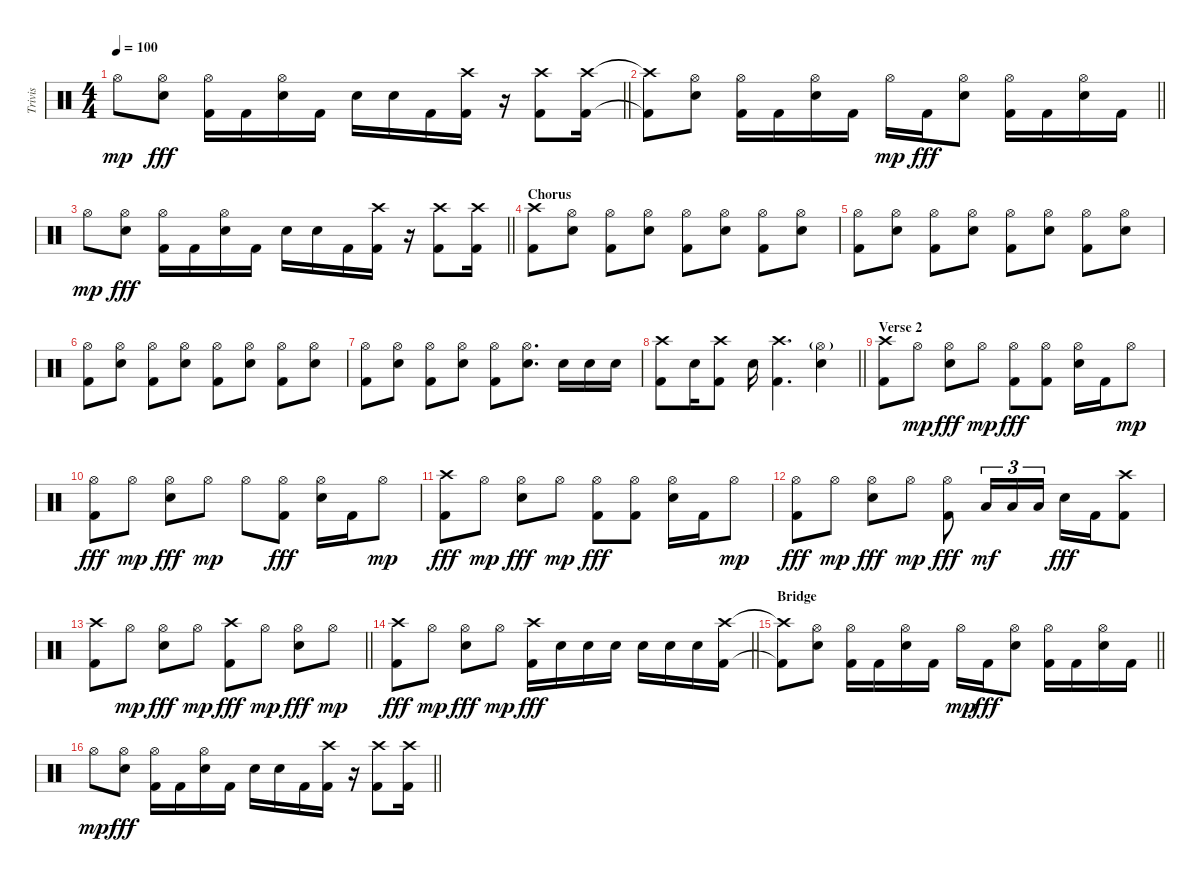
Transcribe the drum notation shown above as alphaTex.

\track ("Trivis" "Trivis") {instrument percussion}
\staff {score}
\articulation defaults
\ts (4 4)
\tempo 100
\clef neutral
\barLineRight lightlight
\ks c "Hi-Hat (open)".8{dy mp}
("Hi-Hat (open)" "Snare (hit) 2").8{dy fff} ("Hi-Hat (open)" "Kick (hit) 2").16 "Kick (hit) 2".16 ("Hi-Hat (open)" "Snare (hit) 2").16 "Kick (hit) 2".16 "Snare (hit) 2".16 "Snare (hit) 2".16 "Kick (hit) 2".16 ("Crash high (hit)" "Kick (hit) 2").16 r.16 ("Crash high (hit)" "Kick (hit) 2").8 ("Crash high (hit)" "Kick (hit) 2").16 |
\barLineRight lightlight
("Crash high (hit)"{t} "Kick (hit) 2"{t}).8 ("Hi-Hat (open)" "Snare (hit) 2").8 ("Hi-Hat (open)" "Kick (hit) 2").16 "Kick (hit) 2".16 ("Hi-Hat (open)" "Snare (hit) 2").16 "Kick (hit) 2".16 "Hi-Hat (open)".16{dy mp} "Kick (hit) 2".16{dy fff} ("Hi-Hat (open)" "Snare (hit) 2").8 ("Hi-Hat (open)" "Kick (hit) 2").16 "Kick (hit) 2".16 ("Hi-Hat (open)" "Snare (hit) 2").16 "Kick (hit) 2".16 |
\barLineRight lightlight "Hi-Hat (open)".8{dy mp}
("Hi-Hat (open)" "Snare (hit) 2").8{dy fff} ("Hi-Hat (open)" "Kick (hit) 2").16 "Kick (hit) 2".16 ("Hi-Hat (open)" "Snare (hit) 2").16 "Kick (hit) 2".16 "Snare (hit) 2".16 "Snare (hit) 2".16 "Kick (hit) 2".16 ("Crash high (hit)" "Kick (hit) 2").16 r.16 ("Crash high (hit)" "Kick (hit) 2").8 ("Crash high (hit)" "Kick (hit) 2").16 |
\section ("" "Chorus")
("Crash high (hit)" "Kick (hit) 2").8 ("Hi-Hat (open)" "Snare (hit) 2").8 ("Hi-Hat (open)" "Kick (hit) 2").8 ("Hi-Hat (open)" "Snare (hit) 2").8 ("Hi-Hat (open)" "Kick (hit) 2").8 ("Hi-Hat (open)" "Snare (hit) 2").8 ("Hi-Hat (open)" "Kick (hit) 2").8 ("Hi-Hat (open)" "Snare (hit) 2").8 |
("Hi-Hat (open)" "Kick (hit) 2").8 ("Hi-Hat (open)" "Snare (hit) 2").8 ("Hi-Hat (open)" "Kick (hit) 2").8 ("Hi-Hat (open)" "Snare (hit) 2").8 ("Hi-Hat (open)" "Kick (hit) 2").8 ("Hi-Hat (open)" "Snare (hit) 2").8 ("Hi-Hat (open)" "Kick (hit) 2").8 ("Hi-Hat (open)" "Snare (hit) 2").8 |
("Hi-Hat (open)" "Kick (hit) 2").8 ("Hi-Hat (open)" "Snare (hit) 2").8 ("Hi-Hat (open)" "Kick (hit) 2").8 ("Hi-Hat (open)" "Snare (hit) 2").8 ("Hi-Hat (open)" "Kick (hit) 2").8 ("Hi-Hat (open)" "Snare (hit) 2").8 ("Hi-Hat (open)" "Kick (hit) 2").8 ("Hi-Hat (open)" "Snare (hit) 2").8 |
("Hi-Hat (open)" "Kick (hit) 2").8 ("Hi-Hat (open)" "Snare (hit) 2").8 ("Hi-Hat (open)" "Kick (hit) 2").8 ("Hi-Hat (open)" "Snare (hit) 2").8 ("Hi-Hat (open)" "Kick (hit) 2").8 ("Hi-Hat (open)" "Snare (hit) 2").8{d} "Snare (hit) 2".16 "Snare (hit) 2".16 "Snare (hit) 2".16 |
\barLineRight lightlight
("Crash high (hit)" "Kick (hit) 2").8 "Snare (hit) 2".16 ("Crash high (hit)" "Kick (hit) 2").8 "Snare (hit) 2".16 ("Crash high (hit)" "Kick (hit) 2").4{d} ("Hi-Hat (open)"{g} "Snare (hit) 2").4 |
\section ("" "Verse 2")
("Crash high (hit)" "Kick (hit) 2").8 "Hi-Hat (open)".8{dy mp} ("Hi-Hat (open)" "Snare (hit) 2").8{dy fff} "Hi-Hat (open)".8{dy mp} ("Hi-Hat (open)" "Kick (hit) 2").8{dy fff} ("Hi-Hat (open)" "Kick (hit) 2").8 ("Hi-Hat (open)" "Snare (hit) 2").16 "Kick (hit) 2".16 "Hi-Hat (open)".8{dy mp} |
("Hi-Hat (open)" "Kick (hit) 2").8{dy fff} "Hi-Hat (open)".8{dy mp} ("Hi-Hat (open)" "Snare (hit) 2").8{dy fff} "Hi-Hat (open)".8{dy mp} "Hi-Hat (open)".8 ("Hi-Hat (open)" "Kick (hit) 2").8{dy fff} ("Hi-Hat (open)" "Snare (hit) 2").16 "Kick (hit) 2".16 "Hi-Hat (open)".8{dy mp} |
("Crash high (hit)" "Kick (hit) 2").8{dy fff} "Hi-Hat (open)".8{dy mp} ("Hi-Hat (open)" "Snare (hit) 2").8{dy fff} "Hi-Hat (open)".8{dy mp} ("Hi-Hat (open)" "Kick (hit) 2").8{dy fff} ("Hi-Hat (open)" "Kick (hit) 2").8 ("Hi-Hat (open)" "Snare (hit) 2").16 "Kick (hit) 2".16 "Hi-Hat (open)".8{dy mp} |
("Hi-Hat (open)" "Kick (hit) 2").8{dy fff} "Hi-Hat (open)".8{dy mp} ("Hi-Hat (open)" "Snare (hit) 2").8{dy fff} "Hi-Hat (open)".8{dy mp} ("Hi-Hat (open)" "Kick (hit) 2").8{dy fff} "Low Tom (hit)".16{tu (3 2) dy mf} "Low Tom (hit)".16{tu (3 2)} "Low Tom (hit)".16{tu (3 2)} "Snare (hit) 2".16{dy fff} "Kick (hit) 2".16 ("Crash high (hit)" "Kick (hit) 2").8 |
\barLineRight lightlight
("Crash high (hit)" "Kick (hit) 2").8 "Hi-Hat (open)".8{dy mp} ("Hi-Hat (open)" "Snare (hit) 2").8{dy fff} "Hi-Hat (open)".8{dy mp} ("Crash high (hit)" "Kick (hit) 2").8{dy fff} "Hi-Hat (open)".8{dy mp} ("Hi-Hat (open)" "Snare (hit) 2").8{dy fff} "Hi-Hat (open)".8{dy mp} |
\barLineRight lightlight
("Crash high (hit)" "Kick (hit) 2").8{dy fff} "Hi-Hat (open)".8{dy mp} ("Hi-Hat (open)" "Snare (hit) 2").8{dy fff} "Hi-Hat (open)".8{dy mp} ("Crash high (hit)" "Kick (hit) 2").16{dy fff} "Snare (hit) 2".16 "Snare (hit) 2".16 "Snare (hit) 2".16 "Snare (hit) 2".16 "Snare (hit) 2".16 "Snare (hit) 2".16 ("Crash high (hit)" "Kick (hit) 2").16 |
\section ("" "Bridge")
\barLineRight lightlight
("Crash high (hit)"{t} "Kick (hit) 2"{t}).8 ("Hi-Hat (open)" "Snare (hit) 2").8 ("Hi-Hat (open)" "Kick (hit) 2").16 "Kick (hit) 2".16 ("Hi-Hat (open)" "Snare (hit) 2").16 "Kick (hit) 2".16 "Hi-Hat (open)".16{dy mp} "Kick (hit) 2".16{dy fff} ("Hi-Hat (open)" "Snare (hit) 2").8 ("Hi-Hat (open)" "Kick (hit) 2").16 "Kick (hit) 2".16 ("Hi-Hat (open)" "Snare (hit) 2").16 "Kick (hit) 2".16 |
\barLineRight lightlight "Hi-Hat (open)".8{dy mp}
("Hi-Hat (open)" "Snare (hit) 2").8{dy fff} ("Hi-Hat (open)" "Kick (hit) 2").16 "Kick (hit) 2".16 ("Hi-Hat (open)" "Snare (hit) 2").16 "Kick (hit) 2".16 "Snare (hit) 2".16 "Snare (hit) 2".16 "Kick (hit) 2".16 ("Crash high (hit)" "Kick (hit) 2").16 r.16 ("Crash high (hit)" "Kick (hit) 2").8 ("Crash high (hit)" "Kick (hit) 2").16
